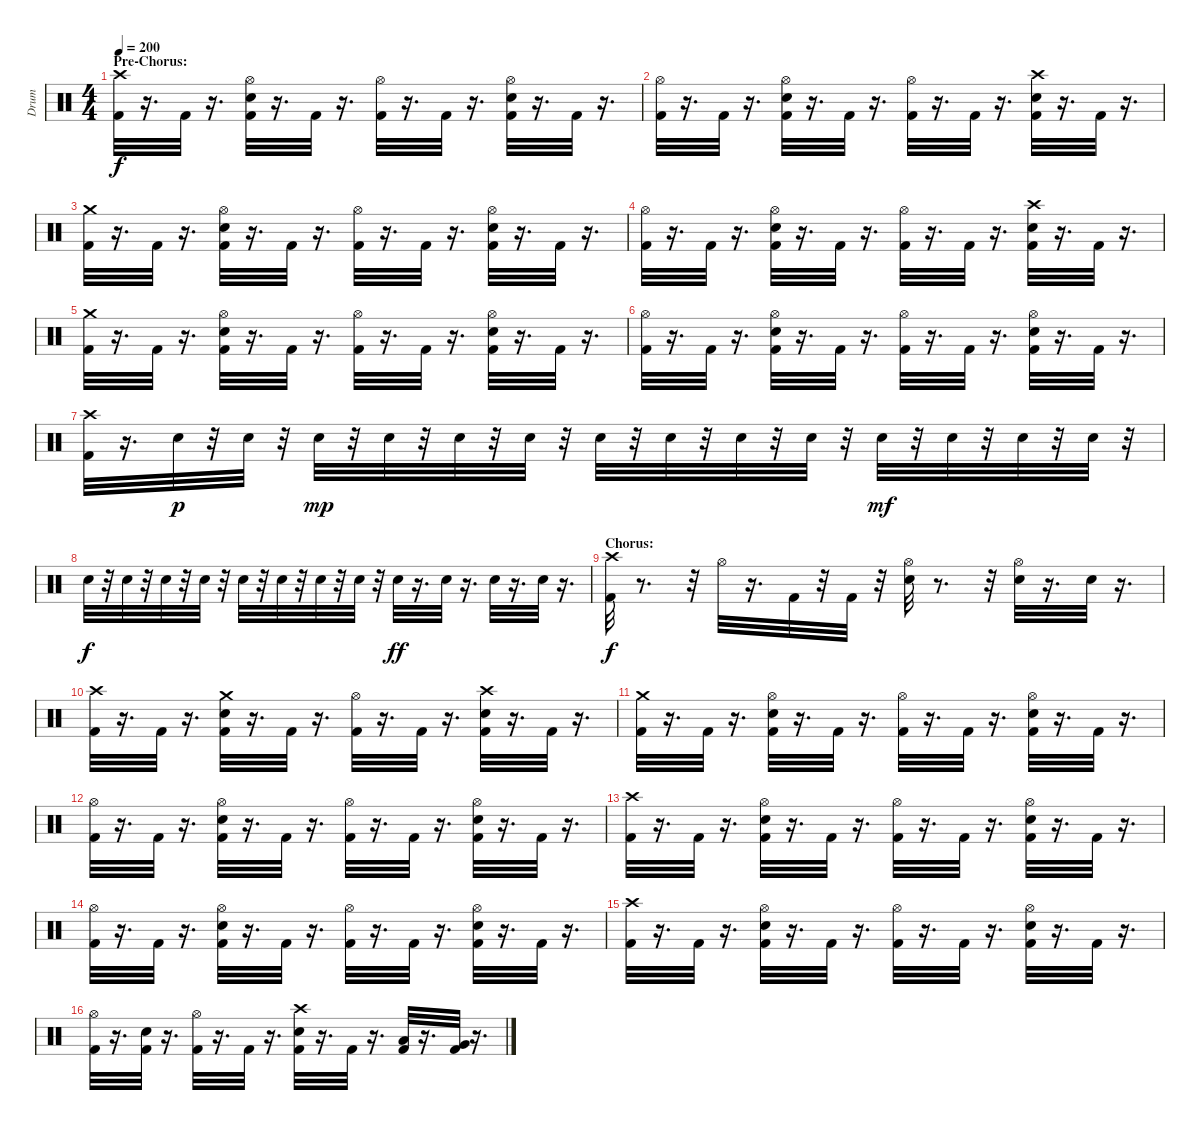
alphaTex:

\track ("Drum" "Drum") {instrument percussion}
\staff {score}
\articulation defaults
\ts (4 4)
\section ("" "Pre-Chorus:")
\tempo 200
\clef neutral
\ks c
("Crash high (hit)" "Kick (hit) 2").32{dy f} r.16{d} "Kick (hit) 2".32 r.16{d} ("Snare (hit) 2" "Hi-Hat (open)" "Kick (hit) 2").32 r.16{d} "Kick (hit) 2".32 r.16{d} ("Hi-Hat (open)" "Kick (hit) 2").32 r.16{d} "Kick (hit) 2".32 r.16{d} ("Snare (hit) 2" "Hi-Hat (open)" "Kick (hit) 2").32 r.16{d} "Kick (hit) 2".32 r.16{d} |
("Hi-Hat (open)" "Kick (hit) 2").32 r.16{d} "Kick (hit) 2".32 r.16{d} ("Snare (hit) 2" "Hi-Hat (open)" "Kick (hit) 2").32 r.16{d} "Kick (hit) 2".32 r.16{d} ("Hi-Hat (open)" "Kick (hit) 2").32 r.16{d} "Kick (hit) 2".32 r.16{d} ("Crash high (hit)" "Snare (hit) 2" "Kick (hit) 2").32 r.16{d} "Kick (hit) 2".32 r.16{d} |
("Crash medium (hit)" "Kick (hit) 2").32 r.16{d} "Kick (hit) 2".32 r.16{d} ("Snare (hit) 2" "Hi-Hat (open)" "Kick (hit) 2").32 r.16{d} "Kick (hit) 2".32 r.16{d} ("Hi-Hat (open)" "Kick (hit) 2").32 r.16{d} "Kick (hit) 2".32 r.16{d} ("Snare (hit) 2" "Hi-Hat (open)" "Kick (hit) 2").32 r.16{d} "Kick (hit) 2".32 r.16{d} |
("Hi-Hat (open)" "Kick (hit) 2").32 r.16{d} "Kick (hit) 2".32 r.16{d} ("Snare (hit) 2" "Hi-Hat (open)" "Kick (hit) 2").32 r.16{d} "Kick (hit) 2".32 r.16{d} ("Hi-Hat (open)" "Kick (hit) 2").32 r.16{d} "Kick (hit) 2".32 r.16{d} ("Crash high (hit)" "Snare (hit) 2" "Kick (hit) 2").32 r.16{d} "Kick (hit) 2".32 r.16{d} |
("Crash medium (hit)" "Kick (hit) 2").32 r.16{d} "Kick (hit) 2".32 r.16{d} ("Snare (hit) 2" "Hi-Hat (open)" "Kick (hit) 2").32 r.16{d} "Kick (hit) 2".32 r.16{d} ("Hi-Hat (open)" "Kick (hit) 2").32 r.16{d} "Kick (hit) 2".32 r.16{d} ("Snare (hit) 2" "Hi-Hat (open)" "Kick (hit) 2").32 r.16{d} "Kick (hit) 2".32 r.16{d} |
("Hi-Hat (open)" "Kick (hit) 2").32 r.16{d} "Kick (hit) 2".32 r.16{d} ("Snare (hit) 2" "Hi-Hat (open)" "Kick (hit) 2").32 r.16{d} "Kick (hit) 2".32 r.16{d} ("Hi-Hat (open)" "Kick (hit) 2").32 r.16{d} "Kick (hit) 2".32 r.16{d} ("Snare (hit) 2" "Hi-Hat (open)" "Kick (hit) 2").32 r.16{d} "Kick (hit) 2".32 r.16{d} |
("Kick (hit) 2" "Crash high (hit)").32 r.16{d} "Snare (hit) 2".32{dy p} r.32 "Snare (hit) 2".32 r.32 "Snare (hit) 2".32{dy mp} r.32 "Snare (hit) 2".32 r.32 "Snare (hit) 2".32 r.32 "Snare (hit) 2".32 r.32 "Snare (hit) 2".32 r.32 "Snare (hit) 2".32 r.32 "Snare (hit) 2".32 r.32 "Snare (hit) 2".32 r.32 "Snare (hit) 2".32{dy mf} r.32 "Snare (hit) 2".32 r.32 "Snare (hit) 2".32 r.32 "Snare (hit) 2".32 r.32 |
"Snare (hit) 2".32{dy f} r.32 "Snare (hit) 2".32 r.32 "Snare (hit) 2".32 r.32 "Snare (hit) 2".32 r.32 "Snare (hit) 2".32 r.32 "Snare (hit) 2".32 r.32 "Snare (hit) 2".32 r.32 "Snare (hit) 2".32 r.32 "Snare (hit) 2".32{dy ff} r.16{d} "Snare (hit) 2".32 r.16{d} "Snare (hit) 2".32 r.16{d} "Snare (hit) 2".32 r.16{d} |
\section ("" "Chorus:")
("Crash high (hit)" "Kick (hit) 2").32{dy f} r.8{d} r.32 "Hi-Hat (open)".32 r.16{d} "Kick (hit) 2".32 r.32 "Kick (hit) 2".32 r.32 ("Hi-Hat (open)" "Snare (hit) 2").32 r.8{d} r.32 ("Hi-Hat (open)" "Snare (hit) 2").32 r.16{d} "Snare (hit) 2".32 r.16{d} |
("Crash high (hit)" "Kick (hit) 2").32 r.16{d} "Kick (hit) 2".32 r.16{d} ("Crash medium (hit)" "Snare (hit) 2" "Kick (hit) 2").32 r.16{d} "Kick (hit) 2".32 r.16{d} ("Hi-Hat (open)" "Kick (hit) 2").32 r.16{d} "Kick (hit) 2".32 r.16{d} ("Crash high (hit)" "Snare (hit) 2" "Kick (hit) 2").32 r.16{d} "Kick (hit) 2".32 r.16{d} |
("Crash medium (hit)" "Kick (hit) 2").32 r.16{d} "Kick (hit) 2".32 r.16{d} ("Snare (hit) 2" "Hi-Hat (open)" "Kick (hit) 2").32 r.16{d} "Kick (hit) 2".32 r.16{d} ("Hi-Hat (open)" "Kick (hit) 2").32 r.16{d} "Kick (hit) 2".32 r.16{d} ("Snare (hit) 2" "Hi-Hat (open)" "Kick (hit) 2").32 r.16{d} "Kick (hit) 2".32 r.16{d} |
("Hi-Hat (open)" "Kick (hit) 2").32 r.16{d} "Kick (hit) 2".32 r.16{d} ("Snare (hit) 2" "Hi-Hat (open)" "Kick (hit) 2").32 r.16{d} "Kick (hit) 2".32 r.16{d} ("Hi-Hat (open)" "Kick (hit) 2").32 r.16{d} "Kick (hit) 2".32 r.16{d} ("Snare (hit) 2" "Hi-Hat (open)" "Kick (hit) 2").32 r.16{d} "Kick (hit) 2".32 r.16{d} |
("Crash high (hit)" "Kick (hit) 2").32 r.16{d} "Kick (hit) 2".32 r.16{d} ("Snare (hit) 2" "Hi-Hat (open)" "Kick (hit) 2").32 r.16{d} "Kick (hit) 2".32 r.16{d} ("Hi-Hat (open)" "Kick (hit) 2").32 r.16{d} "Kick (hit) 2".32 r.16{d} ("Snare (hit) 2" "Hi-Hat (open)" "Kick (hit) 2").32 r.16{d} "Kick (hit) 2".32 r.16{d} |
("Hi-Hat (open)" "Kick (hit) 2").32 r.16{d} "Kick (hit) 2".32 r.16{d} ("Snare (hit) 2" "Hi-Hat (open)" "Kick (hit) 2").32 r.16{d} "Kick (hit) 2".32 r.16{d} ("Hi-Hat (open)" "Kick (hit) 2").32 r.16{d} "Kick (hit) 2".32 r.16{d} ("Snare (hit) 2" "Hi-Hat (open)" "Kick (hit) 2").32 r.16{d} "Kick (hit) 2".32 r.16{d} |
("Crash high (hit)" "Kick (hit) 2").32 r.16{d} "Kick (hit) 2".32 r.16{d} ("Snare (hit) 2" "Hi-Hat (open)" "Kick (hit) 2").32 r.16{d} "Kick (hit) 2".32 r.16{d} ("Hi-Hat (open)" "Kick (hit) 2").32 r.16{d} "Kick (hit) 2".32 r.16{d} ("Snare (hit) 2" "Hi-Hat (open)" "Kick (hit) 2").32 r.16{d} "Kick (hit) 2".32 r.16{d} |
("Hi-Hat (open)" "Kick (hit) 2").32 r.16{d} ("Snare (hit) 2" "Kick (hit) 2").32 r.16{d} ("Hi-Hat (open)" "Kick (hit) 2").32 r.16{d} "Kick (hit) 2".32 r.16{d} ("Crash high (hit)" "Snare (hit) 2" "Kick (hit) 2").32 r.16{d} "Kick (hit) 2".32 r.16{d} ("Low Tom (hit)" "Kick (hit) 2").32 r.16{d} ("Very Low Tom (hit)" "Kick (hit) 2").32 r.16{d}
